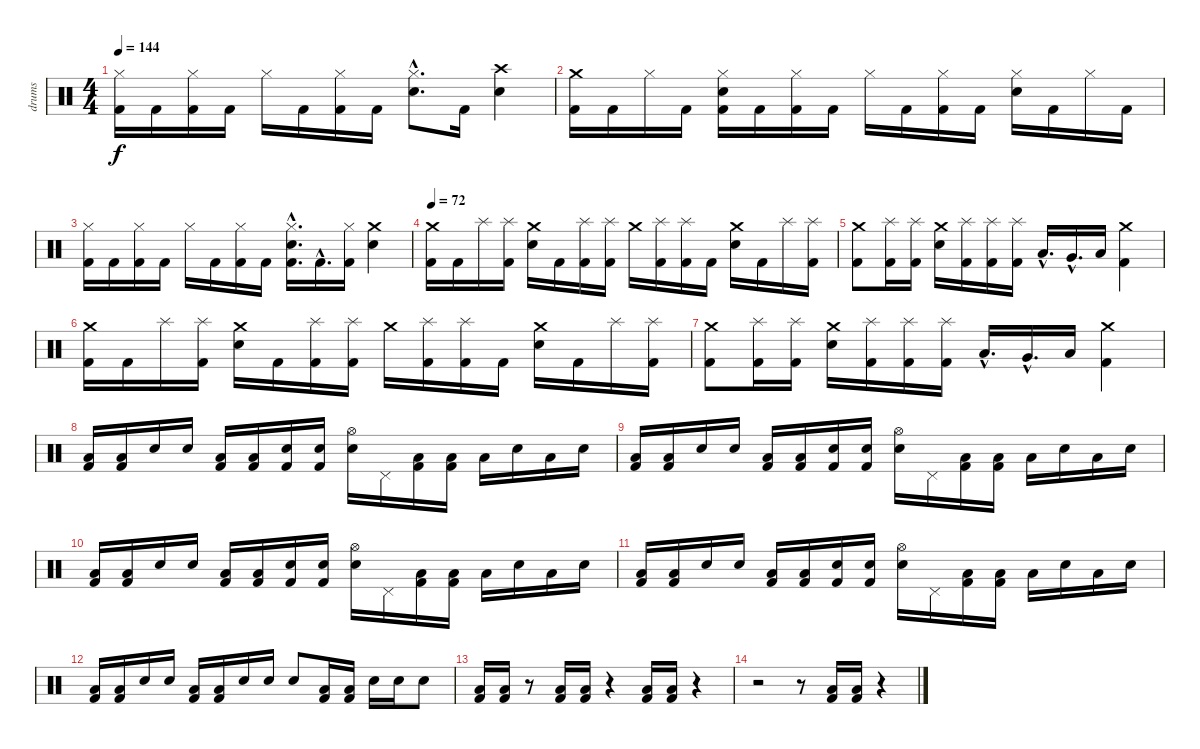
\track ("drums" "drums") {instrument percussion}
\staff {score}
\articulation defaults
\ts (4 4)
\tempo 144
\clef neutral
\ks c
("Hi-Hat (closed)" "Kick (hit) 2").16{dy f} "Kick (hit) 2".16 ("Hi-Hat (closed)" "Kick (hit) 2").16 "Kick (hit) 2".16 "Hi-Hat (closed)".16 "Kick (hit) 2".16 ("Hi-Hat (closed)" "Kick (hit) 2").16 "Kick (hit) 2".16 ("Hi-Hat (closed)"{hac} "Electric Snare (hit)"{hac}).8{d} "Kick (hit) 2".16 ("Crash high (hit)" "Electric Snare (hit)").4 |
("Crash medium (hit)" "Kick (hit) 2").16 "Kick (hit) 2".16 "Hi-Hat (closed)".16 "Kick (hit) 2".16 ("Hi-Hat (closed)" "Electric Snare (hit)" "Kick (hit) 2").16 "Kick (hit) 2".16 ("Hi-Hat (closed)" "Kick (hit) 2").16 "Kick (hit) 2".16 "Hi-Hat (closed)".16 "Kick (hit) 2".16 ("Hi-Hat (closed)" "Kick (hit) 2").16 "Kick (hit) 2".16 ("Hi-Hat (closed)" "Electric Snare (hit)").16 "Kick (hit) 2".16 "Hi-Hat (closed)".16 "Kick (hit) 2".16 |
("Hi-Hat (closed)" "Kick (hit) 2").16 "Kick (hit) 2".16 ("Hi-Hat (closed)" "Kick (hit) 2").16 "Kick (hit) 2".16 "Hi-Hat (closed)".16 "Kick (hit) 2".16 ("Hi-Hat (closed)" "Kick (hit) 2").16 "Kick (hit) 2".16 ("Hi-Hat (closed)"{hac} "Electric Snare (hit)"{hac} "Kick (hit) 2"{hac}).16{d} "Kick (hit) 2"{hac}.16{d} ("Hi-Hat (closed)" "Kick (hit) 2").16 ("Crash medium (hit)" "Electric Snare (hit)").4 |
\tempo 72
("Crash medium (hit)" "Kick (hit) 2").16 "Kick (hit) 2".16 "Splash (hit)".16 ("Splash (hit)" "Kick (hit) 2").16 ("Crash medium (hit)" "Electric Snare (hit)").16 "Kick (hit) 2".16 ("Splash (hit)" "Kick (hit) 2").16 ("Splash (hit)" "Kick (hit) 2").16 "Crash medium (hit)".16 ("Splash (hit)" "Kick (hit) 2").16 ("Splash (hit)" "Kick (hit) 2").16 "Kick (hit) 2".16 ("Crash medium (hit)" "Electric Snare (hit)").16 "Kick (hit) 2".16 "Splash (hit)".16 ("Splash (hit)" "Kick (hit) 2").16 |
("Crash medium (hit)" "Kick (hit) 2").8 ("Splash (hit)" "Kick (hit) 2").16 ("Splash (hit)" "Kick (hit) 2").16 ("Crash medium (hit)" "Electric Snare (hit)").16 ("Splash (hit)" "Kick (hit) 2").16 ("Splash (hit)" "Kick (hit) 2").16 ("Splash (hit)" "Kick (hit) 2").16 "Low Tom (hit)"{hac}.16{d} "Very Low Tom (hit)"{hac}.16{d} "Low Floor Tom (hit)".16 ("Crash medium (hit)" "Kick (hit) 2").4 |
("Crash medium (hit)" "Kick (hit) 2").16 "Kick (hit) 2".16 "Splash (hit)".16 ("Splash (hit)" "Kick (hit) 2").16 ("Crash medium (hit)" "Electric Snare (hit)").16 "Kick (hit) 2".16 ("Splash (hit)" "Kick (hit) 2").16 ("Splash (hit)" "Kick (hit) 2").16 "Crash medium (hit)".16 ("Splash (hit)" "Kick (hit) 2").16 ("Splash (hit)" "Kick (hit) 2").16 "Kick (hit) 2".16 ("Crash medium (hit)" "Electric Snare (hit)").16 "Kick (hit) 2".16 "Splash (hit)".16 ("Splash (hit)" "Kick (hit) 2").16 |
("Crash medium (hit)" "Kick (hit) 2").8 ("Splash (hit)" "Kick (hit) 2").16 ("Splash (hit)" "Kick (hit) 2").16 ("Crash medium (hit)" "Electric Snare (hit)").16 ("Splash (hit)" "Kick (hit) 2").16 ("Splash (hit)" "Kick (hit) 2").16 ("Splash (hit)" "Kick (hit) 2").16 "Low Tom (hit)"{hac}.16{d} "Very Low Tom (hit)"{hac}.16{d} "Low Floor Tom (hit)".16 ("Crash medium (hit)" "Kick (hit) 2").4 |
("Low Floor Tom (hit)" "Kick (hit) 2").16 ("Low Floor Tom (hit)" "Kick (hit) 2").16 "Electric Snare (hit)".16 "Electric Snare (hit)".16 ("Low Floor Tom (hit)" "Kick (hit) 2").16 ("Low Floor Tom (hit)" "Kick (hit) 2").16 ("Electric Snare (hit)" "Kick (hit) 2").16 ("Electric Snare (hit)" "Kick (hit) 2").16 ("Hi-Hat (open)" "Electric Snare (hit)").16 "Pedal Hi-Hat (hit)".16 ("Low Floor Tom (hit)" "Kick (hit) 2").16 ("Low Floor Tom (hit)" "Kick (hit) 2").16 "Low Tom (hit)".16 "Electric Snare (hit)".16 "Low Tom (hit)".16 "Electric Snare (hit)".16 |
("Low Floor Tom (hit)" "Kick (hit) 2").16 ("Low Floor Tom (hit)" "Kick (hit) 2").16 "Electric Snare (hit)".16 "Electric Snare (hit)".16 ("Low Floor Tom (hit)" "Kick (hit) 2").16 ("Low Floor Tom (hit)" "Kick (hit) 2").16 ("Electric Snare (hit)" "Kick (hit) 2").16 ("Electric Snare (hit)" "Kick (hit) 2").16 ("Hi-Hat (open)" "Electric Snare (hit)").16 "Pedal Hi-Hat (hit)".16 ("Low Floor Tom (hit)" "Kick (hit) 2").16 ("Low Floor Tom (hit)" "Kick (hit) 2").16 "Low Tom (hit)".16 "Electric Snare (hit)".16 "Low Tom (hit)".16 "Electric Snare (hit)".16 |
("Low Floor Tom (hit)" "Kick (hit) 2").16 ("Low Floor Tom (hit)" "Kick (hit) 2").16 "Electric Snare (hit)".16 "Electric Snare (hit)".16 ("Low Floor Tom (hit)" "Kick (hit) 2").16 ("Low Floor Tom (hit)" "Kick (hit) 2").16 ("Electric Snare (hit)" "Kick (hit) 2").16 ("Electric Snare (hit)" "Kick (hit) 2").16 ("Hi-Hat (open)" "Electric Snare (hit)").16 "Pedal Hi-Hat (hit)".16 ("Low Floor Tom (hit)" "Kick (hit) 2").16 ("Low Floor Tom (hit)" "Kick (hit) 2").16 "Low Tom (hit)".16 "Electric Snare (hit)".16 "Low Tom (hit)".16 "Electric Snare (hit)".16 |
("Low Floor Tom (hit)" "Kick (hit) 2").16 ("Low Floor Tom (hit)" "Kick (hit) 2").16 "Electric Snare (hit)".16 "Electric Snare (hit)".16 ("Low Floor Tom (hit)" "Kick (hit) 2").16 ("Low Floor Tom (hit)" "Kick (hit) 2").16 ("Electric Snare (hit)" "Kick (hit) 2").16 ("Electric Snare (hit)" "Kick (hit) 2").16 ("Hi-Hat (open)" "Electric Snare (hit)").16 "Pedal Hi-Hat (hit)".16 ("Low Floor Tom (hit)" "Kick (hit) 2").16 ("Low Floor Tom (hit)" "Kick (hit) 2").16 "Low Tom (hit)".16 "Electric Snare (hit)".16 "Low Tom (hit)".16 "Electric Snare (hit)".16 |
("Low Floor Tom (hit)" "Kick (hit) 2").16 ("Low Floor Tom (hit)" "Kick (hit) 2").16 "Electric Snare (hit)".16 "Electric Snare (hit)".16 ("Low Floor Tom (hit)" "Kick (hit) 2").16 ("Low Floor Tom (hit)" "Kick (hit) 2").16 "Electric Snare (hit)".16 "Electric Snare (hit)".16 "Electric Snare (hit)".8 ("Low Floor Tom (hit)" "Kick (hit) 2").16 ("Low Floor Tom (hit)" "Kick (hit) 2").16 "Electric Snare (hit)".16 "Electric Snare (hit)".16 "Electric Snare (hit)".8 |
("Low Floor Tom (hit)" "Kick (hit) 2").16 ("Low Floor Tom (hit)" "Kick (hit) 2").16 r.8 ("Low Floor Tom (hit)" "Kick (hit) 2").16 ("Low Floor Tom (hit)" "Kick (hit) 2").16 r.4 ("Low Floor Tom (hit)" "Kick (hit) 2").16 ("Low Floor Tom (hit)" "Kick (hit) 2").16 r.4 |
r.2 r.8 ("Low Floor Tom (hit)" "Kick (hit) 2").16 ("Low Floor Tom (hit)" "Kick (hit) 2").16 r.4
